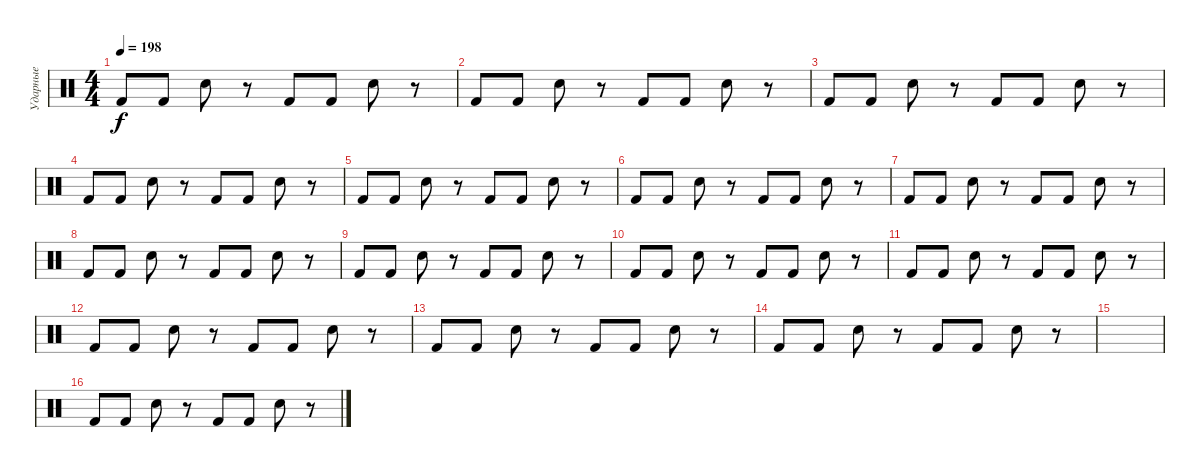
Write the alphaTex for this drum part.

\track ("Ударные" "Ударные") {instrument percussion}
\staff {score}
\articulation defaults
\ts (4 4)
\tempo 198
\clef neutral
\ks c "Kick (hit) 2".8{dy f} "Kick (hit) 2".8 "Snare (hit) 2".8
r.8 "Kick (hit) 2".8 "Kick (hit) 2".8 "Snare (hit) 2".8 r.8 |
"Kick (hit) 2".8 "Kick (hit) 2".8 "Snare (hit) 2".8 r.8 "Kick (hit) 2".8 "Kick (hit) 2".8 "Snare (hit) 2".8 r.8 |
"Kick (hit) 2".8 "Kick (hit) 2".8 "Snare (hit) 2".8 r.8 "Kick (hit) 2".8 "Kick (hit) 2".8 "Snare (hit) 2".8 r.8 |
"Kick (hit) 2".8 "Kick (hit) 2".8 "Snare (hit) 2".8 r.8 "Kick (hit) 2".8 "Kick (hit) 2".8 "Snare (hit) 2".8 r.8 |
"Kick (hit) 2".8 "Kick (hit) 2".8 "Snare (hit) 2".8 r.8 "Kick (hit) 2".8 "Kick (hit) 2".8 "Snare (hit) 2".8 r.8 |
"Kick (hit) 2".8 "Kick (hit) 2".8 "Snare (hit) 2".8 r.8 "Kick (hit) 2".8 "Kick (hit) 2".8 "Snare (hit) 2".8 r.8 |
"Kick (hit) 2".8 "Kick (hit) 2".8 "Snare (hit) 2".8 r.8 "Kick (hit) 2".8 "Kick (hit) 2".8 "Snare (hit) 2".8 r.8 |
"Kick (hit) 2".8 "Kick (hit) 2".8 "Snare (hit) 2".8 r.8 "Kick (hit) 2".8 "Kick (hit) 2".8 "Snare (hit) 2".8 r.8 |
"Kick (hit) 2".8 "Kick (hit) 2".8 "Snare (hit) 2".8 r.8 "Kick (hit) 2".8 "Kick (hit) 2".8 "Snare (hit) 2".8 r.8 |
"Kick (hit) 2".8 "Kick (hit) 2".8 "Snare (hit) 2".8 r.8 "Kick (hit) 2".8 "Kick (hit) 2".8 "Snare (hit) 2".8 r.8 |
"Kick (hit) 2".8 "Kick (hit) 2".8 "Snare (hit) 2".8 r.8 "Kick (hit) 2".8 "Kick (hit) 2".8 "Snare (hit) 2".8 r.8 |
"Kick (hit) 2".8 "Kick (hit) 2".8 "Snare (hit) 2".8 r.8 "Kick (hit) 2".8 "Kick (hit) 2".8 "Snare (hit) 2".8 r.8 |
"Kick (hit) 2".8 "Kick (hit) 2".8 "Snare (hit) 2".8 r.8 "Kick (hit) 2".8 "Kick (hit) 2".8 "Snare (hit) 2".8 r.8 |
"Kick (hit) 2".8 "Kick (hit) 2".8 "Snare (hit) 2".8 r.8 "Kick (hit) 2".8 "Kick (hit) 2".8 "Snare (hit) 2".8 r.8 |
|
"Kick (hit) 2".8 "Kick (hit) 2".8 "Snare (hit) 2".8 r.8 "Kick (hit) 2".8 "Kick (hit) 2".8 "Snare (hit) 2".8 r.8
